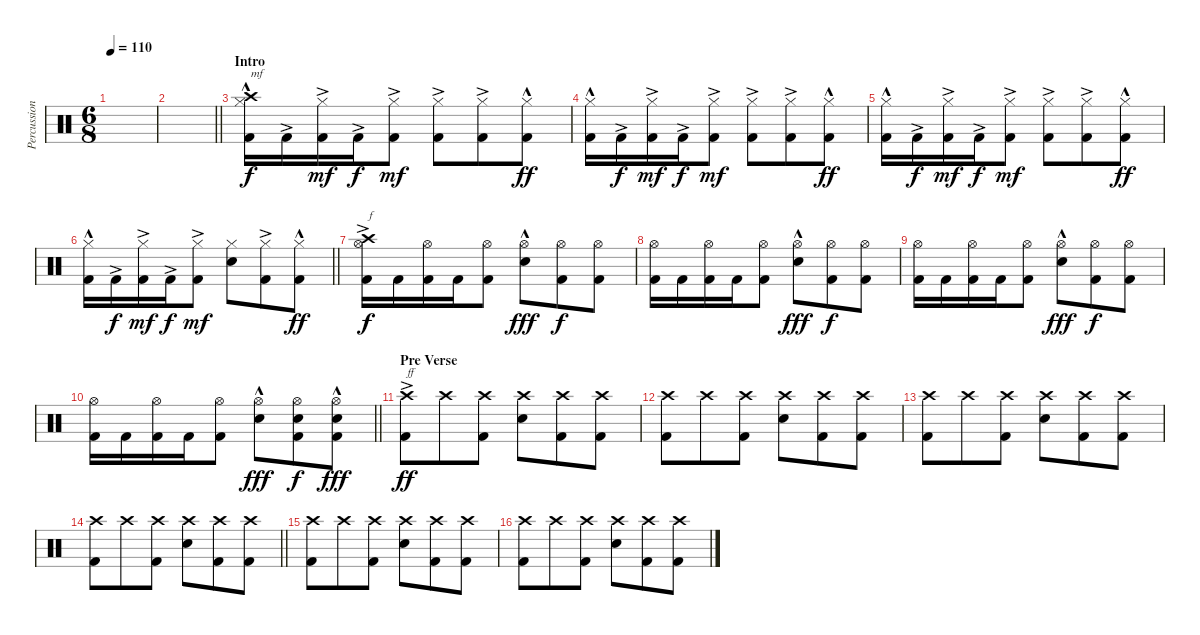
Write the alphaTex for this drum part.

\track ("Percussion" "Percussion") {instrument percussion}
\staff {score}
\articulation defaults
\ts (6 8)
\section ("" "")
\tempo 110
\clef neutral
\ks c
|
\barLineRight lightlight
|
\section ("" "Intro")
("Crash high (hit)" "Hi-Hat (closed)" "Kick (hit) 2"{hac}).16{txt "mf"} "Kick (hit) 2"{ac}.16{dy f} ("Hi-Hat (closed)" "Kick (hit) 2"{ac}).16{dy mf} "Kick (hit) 2"{ac}.16{dy f} ("Hi-Hat (closed)" "Kick (hit) 2"{ac}).8{dy mf} ("Hi-Hat (closed)" "Kick (hit) 2"{ac}).8 ("Hi-Hat (closed)" "Kick (hit) 2"{ac}).8 ("Hi-Hat (closed)" "Kick (hit) 2"{hac}).8{dy ff} |
("Hi-Hat (closed)" "Kick (hit) 2"{hac}).16 "Kick (hit) 2"{ac}.16{dy f} ("Hi-Hat (closed)" "Kick (hit) 2"{ac}).16{dy mf} "Kick (hit) 2"{ac}.16{dy f} ("Hi-Hat (closed)" "Kick (hit) 2"{ac}).8{dy mf} ("Hi-Hat (closed)" "Kick (hit) 2"{ac}).8 ("Hi-Hat (closed)" "Kick (hit) 2"{ac}).8 ("Hi-Hat (closed)" "Kick (hit) 2"{hac}).8{dy ff} |
("Hi-Hat (closed)" "Kick (hit) 2"{hac}).16 "Kick (hit) 2"{ac}.16{dy f} ("Hi-Hat (closed)" "Kick (hit) 2"{ac}).16{dy mf} "Kick (hit) 2"{ac}.16{dy f} ("Hi-Hat (closed)" "Kick (hit) 2"{ac}).8{dy mf} ("Hi-Hat (closed)" "Kick (hit) 2"{ac}).8 ("Hi-Hat (closed)" "Kick (hit) 2"{ac}).8 ("Hi-Hat (closed)" "Kick (hit) 2"{hac}).8{dy ff} |
\barLineRight lightlight
("Hi-Hat (closed)" "Kick (hit) 2"{hac}).16 "Kick (hit) 2"{ac}.16{dy f} ("Hi-Hat (closed)" "Kick (hit) 2"{ac}).16{dy mf} "Kick (hit) 2"{ac}.16{dy f} ("Hi-Hat (closed)" "Kick (hit) 2"{ac}).8{dy mf} ("Hi-Hat (closed)" "Snare (hit) 2").8 ("Hi-Hat (closed)" "Kick (hit) 2"{ac}).8 ("Hi-Hat (closed)" "Kick (hit) 2"{hac}).8{dy ff} |
\section ("" "")
("Crash high (hit)"{ac} "Hi-Hat (open)" "Kick (hit) 2").16{txt "f" dy f} "Kick (hit) 2".16 ("Hi-Hat (open)" "Kick (hit) 2").16 "Kick (hit) 2".16 ("Hi-Hat (open)" "Kick (hit) 2").8 ("Hi-Hat (open)" "Snare (hit) 2"{hac}).8{dy fff} ("Hi-Hat (open)" "Kick (hit) 2").8{dy f} ("Hi-Hat (open)" "Kick (hit) 2").8 |
("Hi-Hat (open)" "Kick (hit) 2").16 "Kick (hit) 2".16 ("Hi-Hat (open)" "Kick (hit) 2").16 "Kick (hit) 2".16 ("Hi-Hat (open)" "Kick (hit) 2").8 ("Hi-Hat (open)" "Snare (hit) 2"{hac}).8{dy fff} ("Hi-Hat (open)" "Kick (hit) 2").8{dy f} ("Hi-Hat (open)" "Kick (hit) 2").8 |
("Hi-Hat (open)" "Kick (hit) 2").16 "Kick (hit) 2".16 ("Hi-Hat (open)" "Kick (hit) 2").16 "Kick (hit) 2".16 ("Hi-Hat (open)" "Kick (hit) 2").8 ("Hi-Hat (open)" "Snare (hit) 2"{hac}).8{dy fff} ("Hi-Hat (open)" "Kick (hit) 2").8{dy f} ("Hi-Hat (open)" "Kick (hit) 2").8 |
\barLineRight lightlight
("Hi-Hat (open)" "Kick (hit) 2").16 "Kick (hit) 2".16 ("Hi-Hat (open)" "Kick (hit) 2").16 "Kick (hit) 2".16 ("Hi-Hat (open)" "Kick (hit) 2").8 ("Hi-Hat (open)" "Snare (hit) 2"{hac}).8{dy fff} ("Hi-Hat (open)" "Snare (hit) 2" "Kick (hit) 2").8{dy f} ("Hi-Hat (open)" "Snare (hit) 2"{hac} "Kick (hit) 2").8{dy fff} |
\section ("" "Pre Verse")
("Crash high (hit)"{ac} "Kick (hit) 2"{ac}).8{txt "ff" dy ff} "Crash high (hit)".8 ("Crash high (hit)" "Kick (hit) 2").8 ("Crash high (hit)" "Snare (hit) 2").8 ("Crash high (hit)" "Kick (hit) 2").8 ("Crash high (hit)" "Kick (hit) 2").8 |
("Crash high (hit)" "Kick (hit) 2").8 "Crash high (hit)".8 ("Crash high (hit)" "Kick (hit) 2").8 ("Crash high (hit)" "Snare (hit) 2").8 ("Crash high (hit)" "Kick (hit) 2").8 ("Crash high (hit)" "Kick (hit) 2").8 |
("Crash high (hit)" "Kick (hit) 2").8 "Crash high (hit)".8 ("Crash high (hit)" "Kick (hit) 2").8 ("Crash high (hit)" "Snare (hit) 2").8 ("Crash high (hit)" "Kick (hit) 2").8 ("Crash high (hit)" "Kick (hit) 2").8 |
\barLineRight lightlight
("Crash high (hit)" "Kick (hit) 2").8 "Crash high (hit)".8 ("Crash high (hit)" "Kick (hit) 2").8 ("Crash high (hit)" "Snare (hit) 2").8 ("Crash high (hit)" "Kick (hit) 2").8 ("Crash high (hit)" "Kick (hit) 2").8 |
\section ("" "")
("Crash high (hit)" "Kick (hit) 2").8 "Crash high (hit)".8 ("Crash high (hit)" "Kick (hit) 2").8 ("Crash high (hit)" "Snare (hit) 2").8 ("Crash high (hit)" "Kick (hit) 2").8 ("Crash high (hit)" "Kick (hit) 2").8 |
("Crash high (hit)" "Kick (hit) 2").8 "Crash high (hit)".8 ("Crash high (hit)" "Kick (hit) 2").8 ("Crash high (hit)" "Snare (hit) 2").8 ("Crash high (hit)" "Kick (hit) 2").8 ("Crash high (hit)" "Kick (hit) 2").8
